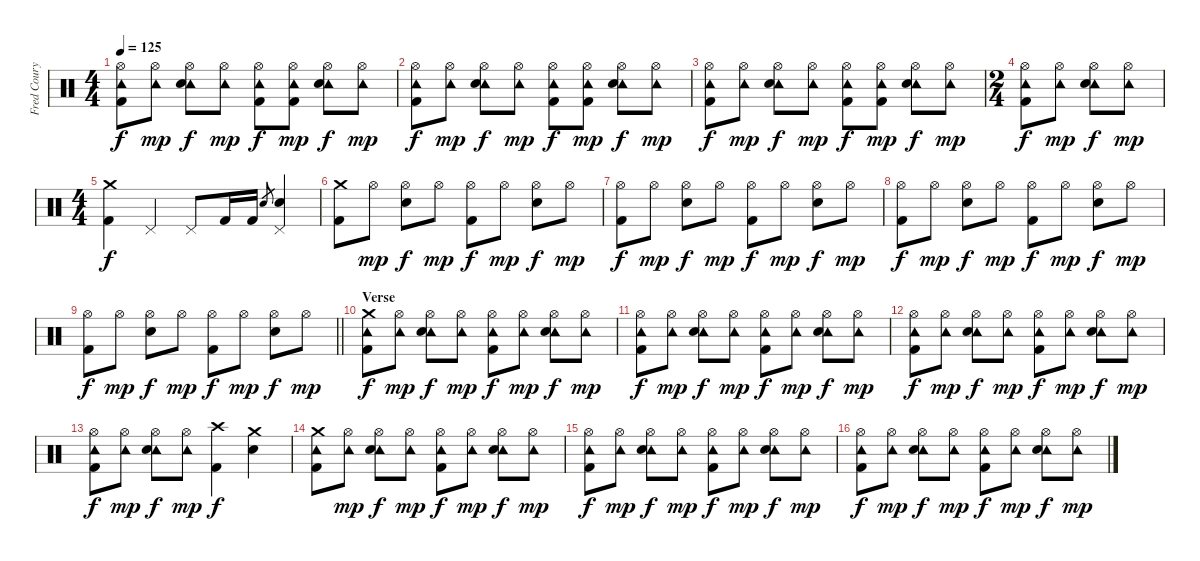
\track ("Fred Coury - Drums" "Fred Coury") {instrument percussion}
\staff {score}
\articulation defaults
\ts (4 4)
\tempo 125
\clef neutral
\ks c
("Hi-Hat (open)" "Tambourine (hit)" "Kick (hit) 2").8{dy f} ("Hi-Hat (open)" "Tambourine (hit)").8{dy mp} ("Hi-Hat (open)" "Tambourine (hit)" "Snare (hit) 2").8{dy f} ("Hi-Hat (open)" "Tambourine (hit)").8{dy mp} ("Hi-Hat (open)" "Tambourine (hit)" "Kick (hit) 2").8{dy f} ("Hi-Hat (open)" "Tambourine (hit)" "Kick (hit) 2").8{dy mp} ("Hi-Hat (open)" "Tambourine (hit)" "Snare (hit) 2").8{dy f} ("Hi-Hat (open)" "Tambourine (hit)").8{dy mp} |
("Hi-Hat (open)" "Tambourine (hit)" "Kick (hit) 2").8{dy f} ("Hi-Hat (open)" "Tambourine (hit)").8{dy mp} ("Hi-Hat (open)" "Tambourine (hit)" "Snare (hit) 2").8{dy f} ("Hi-Hat (open)" "Tambourine (hit)").8{dy mp} ("Hi-Hat (open)" "Tambourine (hit)" "Kick (hit) 2").8{dy f} ("Hi-Hat (open)" "Tambourine (hit)" "Kick (hit) 2").8{dy mp} ("Hi-Hat (open)" "Tambourine (hit)" "Snare (hit) 2").8{dy f} ("Hi-Hat (open)" "Tambourine (hit)").8{dy mp} |
("Hi-Hat (open)" "Tambourine (hit)" "Kick (hit) 2").8{dy f} ("Hi-Hat (open)" "Tambourine (hit)").8{dy mp} ("Hi-Hat (open)" "Tambourine (hit)" "Snare (hit) 2").8{dy f} ("Hi-Hat (open)" "Tambourine (hit)").8{dy mp} ("Hi-Hat (open)" "Tambourine (hit)" "Kick (hit) 2").8{dy f} ("Hi-Hat (open)" "Tambourine (hit)" "Kick (hit) 2").8{dy mp} ("Hi-Hat (open)" "Tambourine (hit)" "Snare (hit) 2").8{dy f} ("Hi-Hat (open)" "Tambourine (hit)").8{dy mp} |
\ts (2 4)
("Hi-Hat (open)" "Tambourine (hit)" "Kick (hit) 2").8{dy f} ("Hi-Hat (open)" "Tambourine (hit)").8{dy mp} ("Hi-Hat (open)" "Tambourine (hit)" "Snare (hit) 2").8{dy f} ("Hi-Hat (open)" "Tambourine (hit)").8{dy mp} |
\ts (4 4)
("Crash medium (hit)" "Kick (hit) 2").4{dy f} "Pedal Hi-Hat (hit)".4 "Pedal Hi-Hat (hit)".8 "Kick (hit) 2".16 "Kick (hit) 2".16 "Snare (hit) 2".8{gr} ("Pedal Hi-Hat (hit)" "Snare (hit) 2").4 |
("Crash medium (hit)" "Kick (hit) 2").8 "Hi-Hat (open)".8{dy mp} ("Hi-Hat (open)" "Snare (hit) 2").8{dy f} "Hi-Hat (open)".8{dy mp} ("Hi-Hat (open)" "Kick (hit) 2").8{dy f} "Hi-Hat (open)".8{dy mp} ("Hi-Hat (open)" "Snare (hit) 2").8{dy f} "Hi-Hat (open)".8{dy mp} |
("Hi-Hat (open)" "Kick (hit) 2").8{dy f} "Hi-Hat (open)".8{dy mp} ("Hi-Hat (open)" "Snare (hit) 2").8{dy f} "Hi-Hat (open)".8{dy mp} ("Hi-Hat (open)" "Kick (hit) 2").8{dy f} "Hi-Hat (open)".8{dy mp} ("Hi-Hat (open)" "Snare (hit) 2").8{dy f} "Hi-Hat (open)".8{dy mp} |
("Hi-Hat (open)" "Kick (hit) 2").8{dy f} "Hi-Hat (open)".8{dy mp} ("Hi-Hat (open)" "Snare (hit) 2").8{dy f} "Hi-Hat (open)".8{dy mp} ("Hi-Hat (open)" "Kick (hit) 2").8{dy f} "Hi-Hat (open)".8{dy mp} ("Hi-Hat (open)" "Snare (hit) 2").8{dy f} "Hi-Hat (open)".8{dy mp} |
\barLineRight lightlight
("Hi-Hat (open)" "Kick (hit) 2").8{dy f} "Hi-Hat (open)".8{dy mp} ("Hi-Hat (open)" "Snare (hit) 2").8{dy f} "Hi-Hat (open)".8{dy mp} ("Hi-Hat (open)" "Kick (hit) 2").8{dy f} "Hi-Hat (open)".8{dy mp} ("Hi-Hat (open)" "Snare (hit) 2").8{dy f} "Hi-Hat (open)".8{dy mp} |
\section ("" "Verse")
("Crash medium (hit)" "Tambourine (hit)" "Kick (hit) 2").8{dy f} ("Hi-Hat (open)" "Tambourine (hit)").8{dy mp} ("Hi-Hat (open)" "Tambourine (hit)" "Snare (hit) 2").8{dy f} ("Hi-Hat (open)" "Tambourine (hit)").8{dy mp} ("Hi-Hat (open)" "Tambourine (hit)" "Kick (hit) 2").8{dy f} ("Hi-Hat (open)" "Tambourine (hit)").8{dy mp} ("Hi-Hat (open)" "Tambourine (hit)" "Snare (hit) 2").8{dy f} ("Hi-Hat (open)" "Tambourine (hit)").8{dy mp} |
("Hi-Hat (open)" "Tambourine (hit)" "Kick (hit) 2").8{dy f} ("Hi-Hat (open)" "Tambourine (hit)").8{dy mp} ("Hi-Hat (open)" "Tambourine (hit)" "Snare (hit) 2").8{dy f} ("Hi-Hat (open)" "Tambourine (hit)").8{dy mp} ("Hi-Hat (open)" "Tambourine (hit)" "Kick (hit) 2").8{dy f} ("Hi-Hat (open)" "Tambourine (hit)").8{dy mp} ("Hi-Hat (open)" "Tambourine (hit)" "Snare (hit) 2").8{dy f} ("Hi-Hat (open)" "Tambourine (hit)").8{dy mp} |
("Hi-Hat (open)" "Tambourine (hit)" "Kick (hit) 2").8{dy f} ("Hi-Hat (open)" "Tambourine (hit)").8{dy mp} ("Hi-Hat (open)" "Tambourine (hit)" "Snare (hit) 2").8{dy f} ("Hi-Hat (open)" "Tambourine (hit)").8{dy mp} ("Hi-Hat (open)" "Tambourine (hit)" "Kick (hit) 2").8{dy f} ("Hi-Hat (open)" "Tambourine (hit)").8{dy mp} ("Hi-Hat (open)" "Tambourine (hit)" "Snare (hit) 2").8{dy f} ("Hi-Hat (open)" "Tambourine (hit)").8{dy mp} |
("Hi-Hat (open)" "Tambourine (hit)" "Kick (hit) 2").8{dy f} ("Hi-Hat (open)" "Tambourine (hit)").8{dy mp} ("Hi-Hat (open)" "Tambourine (hit)" "Snare (hit) 2").8{dy f} ("Hi-Hat (open)" "Tambourine (hit)").8{dy mp} ("Crash high (hit)" "Kick (hit) 2").4{dy f} ("Crash medium (hit)" "Snare (hit) 2").4 |
("Crash medium (hit)" "Tambourine (hit)" "Kick (hit) 2").8 ("Hi-Hat (open)" "Tambourine (hit)").8{dy mp} ("Hi-Hat (open)" "Tambourine (hit)" "Snare (hit) 2").8{dy f} ("Hi-Hat (open)" "Tambourine (hit)").8{dy mp} ("Hi-Hat (open)" "Tambourine (hit)" "Kick (hit) 2").8{dy f} ("Hi-Hat (open)" "Tambourine (hit)").8{dy mp} ("Hi-Hat (open)" "Tambourine (hit)" "Snare (hit) 2").8{dy f} ("Hi-Hat (open)" "Tambourine (hit)").8{dy mp} |
("Hi-Hat (open)" "Tambourine (hit)" "Kick (hit) 2").8{dy f} ("Hi-Hat (open)" "Tambourine (hit)").8{dy mp} ("Hi-Hat (open)" "Tambourine (hit)" "Snare (hit) 2").8{dy f} ("Hi-Hat (open)" "Tambourine (hit)").8{dy mp} ("Hi-Hat (open)" "Tambourine (hit)" "Kick (hit) 2").8{dy f} ("Hi-Hat (open)" "Tambourine (hit)").8{dy mp} ("Hi-Hat (open)" "Tambourine (hit)" "Snare (hit) 2").8{dy f} ("Hi-Hat (open)" "Tambourine (hit)").8{dy mp} |
("Hi-Hat (open)" "Tambourine (hit)" "Kick (hit) 2").8{dy f} ("Hi-Hat (open)" "Tambourine (hit)").8{dy mp} ("Hi-Hat (open)" "Tambourine (hit)" "Snare (hit) 2").8{dy f} ("Hi-Hat (open)" "Tambourine (hit)").8{dy mp} ("Hi-Hat (open)" "Tambourine (hit)" "Kick (hit) 2").8{dy f} ("Hi-Hat (open)" "Tambourine (hit)").8{dy mp} ("Hi-Hat (open)" "Tambourine (hit)" "Snare (hit) 2").8{dy f} ("Hi-Hat (open)" "Tambourine (hit)").8{dy mp}
